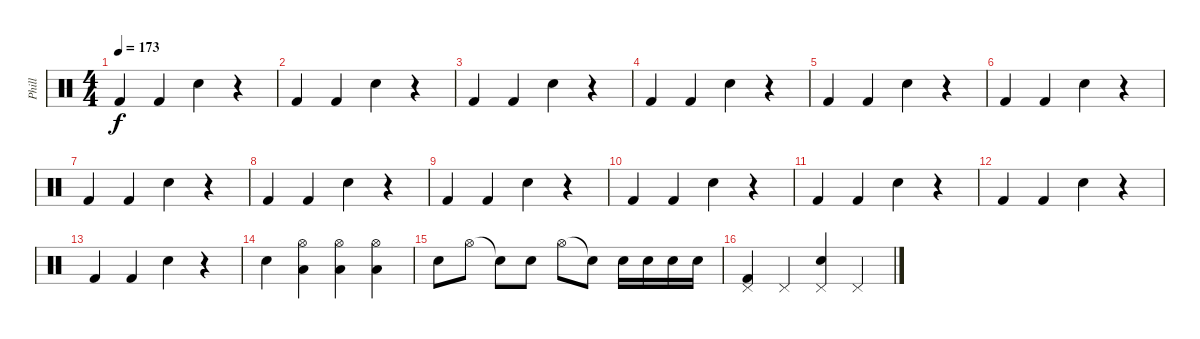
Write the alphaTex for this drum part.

\track ("Phill" "Phill") {instrument percussion}
\staff {score}
\articulation defaults
\ts (4 4)
\tempo 173
\clef neutral
\ks c "Kick (hit) 2".4{dy f} "Kick (hit) 2".4 "Electric Snare (hit)".4
r.4 |
"Kick (hit) 2".4 "Kick (hit) 2".4 "Electric Snare (hit)".4 r.4 |
"Kick (hit) 2".4 "Kick (hit) 2".4 "Electric Snare (hit)".4 r.4 |
"Kick (hit) 2".4 "Kick (hit) 2".4 "Electric Snare (hit)".4 r.4 |
"Kick (hit) 2".4 "Kick (hit) 2".4 "Electric Snare (hit)".4 r.4 |
"Kick (hit) 2".4 "Kick (hit) 2".4 "Electric Snare (hit)".4 r.4 |
"Kick (hit) 2".4 "Kick (hit) 2".4 "Electric Snare (hit)".4 r.4 |
"Kick (hit) 2".4 "Kick (hit) 2".4 "Electric Snare (hit)".4 r.4 |
"Kick (hit) 2".4 "Kick (hit) 2".4 "Electric Snare (hit)".4 r.4 |
"Kick (hit) 2".4 "Kick (hit) 2".4 "Electric Snare (hit)".4 r.4 |
"Kick (hit) 2".4 "Kick (hit) 2".4 "Electric Snare (hit)".4 r.4 |
"Kick (hit) 2".4 "Kick (hit) 2".4 "Electric Snare (hit)".4 r.4 |
"Kick (hit) 2".4 "Kick (hit) 2".4 "Electric Snare (hit)".4 r.4 |
"Electric Snare (hit)".4 ("Hi-Hat (open)" "Low Tom (hit)").4 ("Hi-Hat (open)" "Low Tom (hit)").4 ("Hi-Hat (open)" "Low Tom (hit)").4 |
"Electric Snare (hit)".8 "Hi-Hat (open)".8 "Snare (hit)"{t}.8 "Electric Snare (hit)".8 "Hi-Hat (open)".8 "Snare (hit)"{t}.8 "Electric Snare (hit)".16 "Electric Snare (hit)".16 "Electric Snare (hit)".16 "Electric Snare (hit)".16 |
("Pedal Hi-Hat (hit)" "Kick (hit) 2").4 "Pedal Hi-Hat (hit)".4 ("Pedal Hi-Hat (hit)" "Electric Snare (hit)").4 "Pedal Hi-Hat (hit)".4
